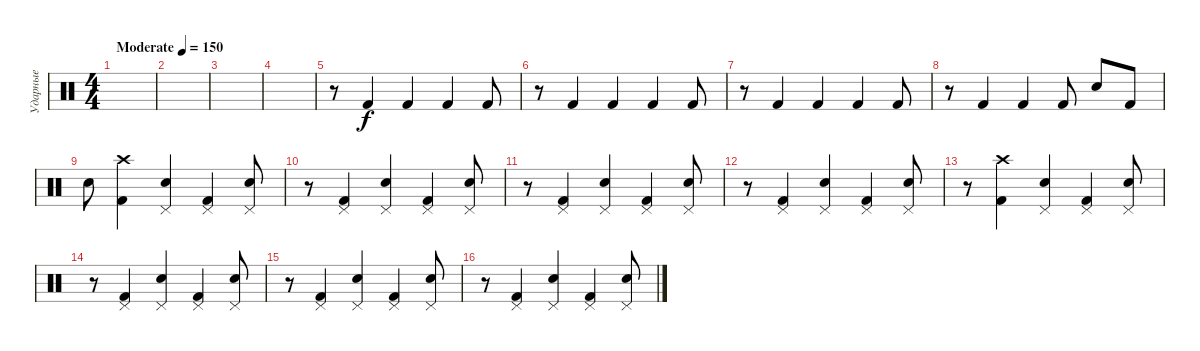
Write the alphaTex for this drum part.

\track ("Ударные" "Ударные") {instrument percussion}
\staff {score}
\articulation defaults
\ts (4 4)
\tempo (150 "Moderate")
\clef neutral
\ks c
|
|
|
|
r.8 "Kick (hit) 2".4 "Kick (hit) 2".4 "Kick (hit) 2".4 "Kick (hit) 2".8 |
r.8 "Kick (hit) 2".4 "Kick (hit) 2".4 "Kick (hit) 2".4 "Kick (hit) 2".8 |
r.8 "Kick (hit) 2".4 "Kick (hit) 2".4 "Kick (hit) 2".4 "Kick (hit) 2".8 |
r.8 "Kick (hit) 2".4 "Kick (hit) 2".4 "Kick (hit) 2".8 "Electric Snare (hit)".8 "Kick (hit) 2".8 |
"Electric Snare (hit)".8 ("Kick (hit) 2" "Crash high (hit)").4 ("Electric Snare (hit)" "Pedal Hi-Hat (hit)").4 ("Kick (hit) 2" "Pedal Hi-Hat (hit)").4 ("Electric Snare (hit)" "Pedal Hi-Hat (hit)").8 |
r.8 ("Kick (hit) 2" "Pedal Hi-Hat (hit)").4 ("Electric Snare (hit)" "Pedal Hi-Hat (hit)").4 ("Kick (hit) 2" "Pedal Hi-Hat (hit)").4 ("Electric Snare (hit)" "Pedal Hi-Hat (hit)").8 |
r.8 ("Kick (hit) 2" "Pedal Hi-Hat (hit)").4 ("Electric Snare (hit)" "Pedal Hi-Hat (hit)").4 ("Kick (hit) 2" "Pedal Hi-Hat (hit)").4 ("Electric Snare (hit)" "Pedal Hi-Hat (hit)").8 |
r.8 ("Kick (hit) 2" "Pedal Hi-Hat (hit)").4 ("Electric Snare (hit)" "Pedal Hi-Hat (hit)").4 ("Kick (hit) 2" "Pedal Hi-Hat (hit)").4 ("Electric Snare (hit)" "Pedal Hi-Hat (hit)").8 |
r.8 ("Kick (hit) 2" "Crash high (hit)").4 ("Electric Snare (hit)" "Pedal Hi-Hat (hit)").4 ("Kick (hit) 2" "Pedal Hi-Hat (hit)").4 ("Electric Snare (hit)" "Pedal Hi-Hat (hit)").8 |
r.8 ("Kick (hit) 2" "Pedal Hi-Hat (hit)").4 ("Electric Snare (hit)" "Pedal Hi-Hat (hit)").4 ("Kick (hit) 2" "Pedal Hi-Hat (hit)").4 ("Electric Snare (hit)" "Pedal Hi-Hat (hit)").8 |
r.8 ("Kick (hit) 2" "Pedal Hi-Hat (hit)").4 ("Electric Snare (hit)" "Pedal Hi-Hat (hit)").4 ("Kick (hit) 2" "Pedal Hi-Hat (hit)").4 ("Electric Snare (hit)" "Pedal Hi-Hat (hit)").8 |
r.8 ("Kick (hit) 2" "Pedal Hi-Hat (hit)").4 ("Electric Snare (hit)" "Pedal Hi-Hat (hit)").4 ("Kick (hit) 2" "Pedal Hi-Hat (hit)").4 ("Electric Snare (hit)" "Pedal Hi-Hat (hit)").8
